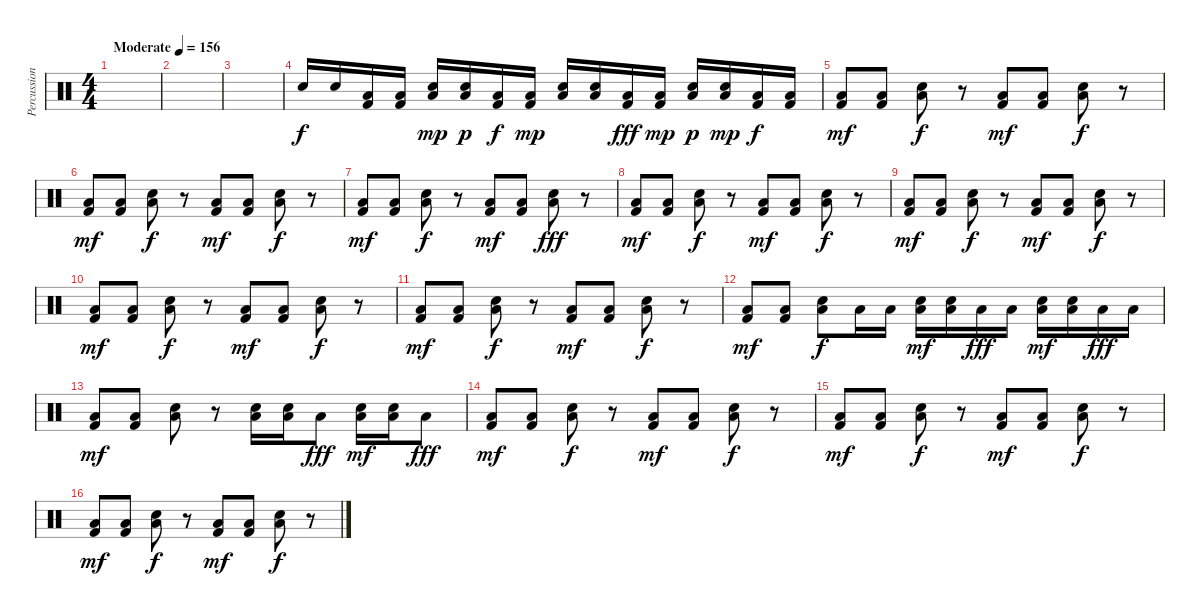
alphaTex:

\track ("Percussion" "Percussion") {instrument percussion}
\staff {score}
\articulation defaults
\ts (4 4)
\tempo (156 "Moderate")
\clef neutral
\ks c
|
|
|
"Electric Snare (hit)".16 "Electric Snare (hit)".16 ("Low Floor Tom (hit)" "Kick (hit) 2").16{dy f} ("Low Floor Tom (hit)" "Kick (hit) 2").16 ("Low Floor Tom (hit)" "Electric Snare (hit)").16{dy mp} ("Low Floor Tom (hit)" "Electric Snare (hit)").16{dy p} ("Low Floor Tom (hit)" "Kick (hit) 2").16{dy f} ("Low Floor Tom (hit)" "Kick (hit) 2").16{dy mp} ("Low Floor Tom (hit)" "Electric Snare (hit)").16 ("Low Floor Tom (hit)" "Electric Snare (hit)").16 ("Low Floor Tom (hit)" "Kick (hit) 2").16{dy fff} ("Low Floor Tom (hit)" "Kick (hit) 2").16{dy mp} ("Low Floor Tom (hit)" "Electric Snare (hit)").16{dy p} ("Low Floor Tom (hit)" "Electric Snare (hit)").16{dy mp} ("Low Floor Tom (hit)" "Kick (hit) 2").16{dy f} ("Low Floor Tom (hit)" "Kick (hit) 2").16 |
("Low Floor Tom (hit)" "Kick (hit) 2").8{dy mf} ("Low Floor Tom (hit)" "Kick (hit) 2").8 ("Low Floor Tom (hit)" "Electric Snare (hit)").8{dy f} r.8 ("Low Floor Tom (hit)" "Kick (hit) 2").8{dy mf} ("Low Floor Tom (hit)" "Kick (hit) 2").8 ("Low Floor Tom (hit)" "Electric Snare (hit)").8{dy f} r.8 |
("Low Floor Tom (hit)" "Kick (hit) 2").8{dy mf} ("Low Floor Tom (hit)" "Kick (hit) 2").8 ("Low Floor Tom (hit)" "Electric Snare (hit)").8{dy f} r.8 ("Low Floor Tom (hit)" "Kick (hit) 2").8{dy mf} ("Low Floor Tom (hit)" "Kick (hit) 2").8 ("Low Floor Tom (hit)" "Electric Snare (hit)").8{dy f} r.8 |
("Low Floor Tom (hit)" "Kick (hit) 2").8{dy mf} ("Low Floor Tom (hit)" "Kick (hit) 2").8 ("Low Floor Tom (hit)" "Electric Snare (hit)").8{dy f} r.8 ("Low Floor Tom (hit)" "Kick (hit) 2").8{dy mf} ("Low Floor Tom (hit)" "Kick (hit) 2").8 ("Low Floor Tom (hit)" "Electric Snare (hit)").8{dy fff} r.8 |
("Low Floor Tom (hit)" "Kick (hit) 2").8{dy mf} ("Low Floor Tom (hit)" "Kick (hit) 2").8 ("Low Floor Tom (hit)" "Electric Snare (hit)").8{dy f} r.8 ("Low Floor Tom (hit)" "Kick (hit) 2").8{dy mf} ("Low Floor Tom (hit)" "Kick (hit) 2").8 ("Low Floor Tom (hit)" "Electric Snare (hit)").8{dy f} r.8 |
("Low Floor Tom (hit)" "Kick (hit) 2").8{dy mf} ("Low Floor Tom (hit)" "Kick (hit) 2").8 ("Low Floor Tom (hit)" "Electric Snare (hit)").8{dy f} r.8 ("Low Floor Tom (hit)" "Kick (hit) 2").8{dy mf} ("Low Floor Tom (hit)" "Kick (hit) 2").8 ("Low Floor Tom (hit)" "Electric Snare (hit)").8{dy f} r.8 |
("Low Floor Tom (hit)" "Kick (hit) 2").8{dy mf} ("Low Floor Tom (hit)" "Kick (hit) 2").8 ("Low Floor Tom (hit)" "Electric Snare (hit)").8{dy f} r.8 ("Low Floor Tom (hit)" "Kick (hit) 2").8{dy mf} ("Low Floor Tom (hit)" "Kick (hit) 2").8 ("Low Floor Tom (hit)" "Electric Snare (hit)").8{dy f} r.8 |
("Low Floor Tom (hit)" "Kick (hit) 2").8{dy mf} ("Low Floor Tom (hit)" "Kick (hit) 2").8 ("Low Floor Tom (hit)" "Electric Snare (hit)").8{dy f} r.8 ("Low Floor Tom (hit)" "Kick (hit) 2").8{dy mf} ("Low Floor Tom (hit)" "Kick (hit) 2").8 ("Low Floor Tom (hit)" "Electric Snare (hit)").8{dy f} r.8 |
("Low Floor Tom (hit)" "Kick (hit) 2").8{dy mf} ("Low Floor Tom (hit)" "Kick (hit) 2").8 ("Low Floor Tom (hit)" "Electric Snare (hit)").8{dy f} "Low Floor Tom (hit)".16 "Low Floor Tom (hit)".16 ("Low Floor Tom (hit)" "Electric Snare (hit)").16{dy mf} ("Low Floor Tom (hit)" "Electric Snare (hit)").16 "Low Floor Tom (hit)".16{dy fff} "Low Floor Tom (hit)".16 ("Low Floor Tom (hit)" "Electric Snare (hit)").16{dy mf} ("Low Floor Tom (hit)" "Electric Snare (hit)").16 "Low Floor Tom (hit)".16{dy fff} "Low Floor Tom (hit)".16 |
("Low Floor Tom (hit)" "Kick (hit) 2").8{dy mf} ("Low Floor Tom (hit)" "Kick (hit) 2").8 ("Low Floor Tom (hit)" "Electric Snare (hit)").8 r.8 ("Low Floor Tom (hit)" "Electric Snare (hit)").16 ("Low Floor Tom (hit)" "Electric Snare (hit)").16 "Low Floor Tom (hit)".8{dy fff} ("Low Floor Tom (hit)" "Electric Snare (hit)").16{dy mf} ("Low Floor Tom (hit)" "Electric Snare (hit)").16 "Low Floor Tom (hit)".8{dy fff} |
("Low Floor Tom (hit)" "Kick (hit) 2").8{dy mf} ("Low Floor Tom (hit)" "Kick (hit) 2").8 ("Low Floor Tom (hit)" "Electric Snare (hit)").8{dy f} r.8 ("Low Floor Tom (hit)" "Kick (hit) 2").8{dy mf} ("Low Floor Tom (hit)" "Kick (hit) 2").8 ("Low Floor Tom (hit)" "Electric Snare (hit)").8{dy f} r.8 |
("Low Floor Tom (hit)" "Kick (hit) 2").8{dy mf} ("Low Floor Tom (hit)" "Kick (hit) 2").8 ("Low Floor Tom (hit)" "Electric Snare (hit)").8{dy f} r.8 ("Low Floor Tom (hit)" "Kick (hit) 2").8{dy mf} ("Low Floor Tom (hit)" "Kick (hit) 2").8 ("Low Floor Tom (hit)" "Electric Snare (hit)").8{dy f} r.8 |
("Low Floor Tom (hit)" "Kick (hit) 2").8{dy mf} ("Low Floor Tom (hit)" "Kick (hit) 2").8 ("Low Floor Tom (hit)" "Electric Snare (hit)").8{dy f} r.8 ("Low Floor Tom (hit)" "Kick (hit) 2").8{dy mf} ("Low Floor Tom (hit)" "Kick (hit) 2").8 ("Low Floor Tom (hit)" "Electric Snare (hit)").8{dy f} r.8
